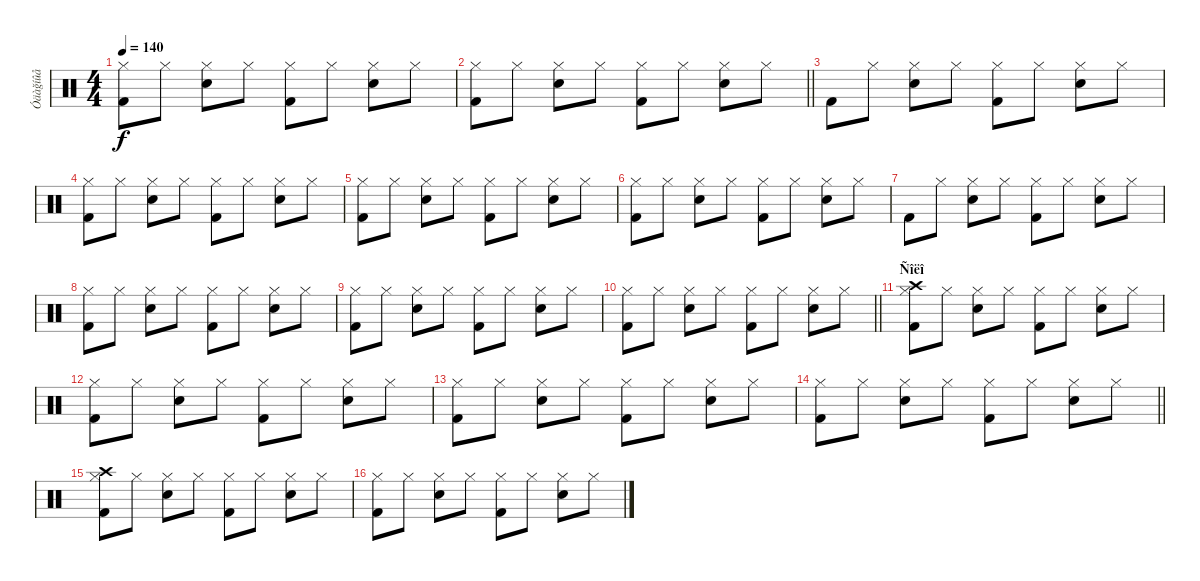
\track ("Óäàğíûå" "Óäàğíûå") {instrument percussion}
\staff {score}
\articulation defaults
\ts (4 4)
\tempo 140
\clef neutral
\ks c
("Hi-Hat (closed)" "Kick (hit) 2").8{dy f} "Hi-Hat (closed)".8 ("Hi-Hat (closed)" "Snare (hit) 2").8 "Hi-Hat (closed)".8 ("Hi-Hat (closed)" "Kick (hit) 2").8 "Hi-Hat (closed)".8 ("Hi-Hat (closed)" "Snare (hit) 2").8 "Hi-Hat (closed)".8 |
\barLineRight lightlight
("Hi-Hat (closed)" "Kick (hit) 2").8 "Hi-Hat (closed)".8 ("Hi-Hat (closed)" "Snare (hit) 2").8 "Hi-Hat (closed)".8 ("Hi-Hat (closed)" "Kick (hit) 2").8 "Hi-Hat (closed)".8 ("Hi-Hat (closed)" "Snare (hit) 2").8 "Hi-Hat (closed)".8 |
"Kick (hit) 2".8 "Hi-Hat (closed)".8 ("Hi-Hat (closed)" "Snare (hit) 2").8 "Hi-Hat (closed)".8 ("Hi-Hat (closed)" "Kick (hit) 2").8 "Hi-Hat (closed)".8 ("Hi-Hat (closed)" "Snare (hit) 2").8 "Hi-Hat (closed)".8 |
("Hi-Hat (closed)" "Kick (hit) 2").8 "Hi-Hat (closed)".8 ("Hi-Hat (closed)" "Snare (hit) 2").8 "Hi-Hat (closed)".8 ("Hi-Hat (closed)" "Kick (hit) 2").8 "Hi-Hat (closed)".8 ("Hi-Hat (closed)" "Snare (hit) 2").8 "Hi-Hat (closed)".8 |
("Hi-Hat (closed)" "Kick (hit) 2").8 "Hi-Hat (closed)".8 ("Hi-Hat (closed)" "Snare (hit) 2").8 "Hi-Hat (closed)".8 ("Hi-Hat (closed)" "Kick (hit) 2").8 "Hi-Hat (closed)".8 ("Hi-Hat (closed)" "Snare (hit) 2").8 "Hi-Hat (closed)".8 |
("Hi-Hat (closed)" "Kick (hit) 2").8 "Hi-Hat (closed)".8 ("Hi-Hat (closed)" "Snare (hit) 2").8 "Hi-Hat (closed)".8 ("Hi-Hat (closed)" "Kick (hit) 2").8 "Hi-Hat (closed)".8 ("Hi-Hat (closed)" "Snare (hit) 2").8 "Hi-Hat (closed)".8 |
"Kick (hit) 2".8 "Hi-Hat (closed)".8 ("Hi-Hat (closed)" "Snare (hit) 2").8 "Hi-Hat (closed)".8 ("Hi-Hat (closed)" "Kick (hit) 2").8 "Hi-Hat (closed)".8 ("Hi-Hat (closed)" "Snare (hit) 2").8 "Hi-Hat (closed)".8 |
("Hi-Hat (closed)" "Kick (hit) 2").8 "Hi-Hat (closed)".8 ("Hi-Hat (closed)" "Snare (hit) 2").8 "Hi-Hat (closed)".8 ("Hi-Hat (closed)" "Kick (hit) 2").8 "Hi-Hat (closed)".8 ("Hi-Hat (closed)" "Snare (hit) 2").8 "Hi-Hat (closed)".8 |
("Hi-Hat (closed)" "Kick (hit) 2").8 "Hi-Hat (closed)".8 ("Hi-Hat (closed)" "Snare (hit) 2").8 "Hi-Hat (closed)".8 ("Hi-Hat (closed)" "Kick (hit) 2").8 "Hi-Hat (closed)".8 ("Hi-Hat (closed)" "Snare (hit) 2").8 "Hi-Hat (closed)".8 |
\barLineRight lightlight
("Hi-Hat (closed)" "Kick (hit) 2").8 "Hi-Hat (closed)".8 ("Hi-Hat (closed)" "Snare (hit) 2").8 "Hi-Hat (closed)".8 ("Hi-Hat (closed)" "Kick (hit) 2").8 "Hi-Hat (closed)".8 ("Hi-Hat (closed)" "Snare (hit) 2").8 "Hi-Hat (closed)".8 |
\section ("" "Ñîëî")
("Hi-Hat (closed)" "Kick (hit) 2" "Crash high (hit)").8 "Hi-Hat (closed)".8 ("Hi-Hat (closed)" "Snare (hit) 2").8 "Hi-Hat (closed)".8 ("Hi-Hat (closed)" "Kick (hit) 2").8 "Hi-Hat (closed)".8 ("Hi-Hat (closed)" "Snare (hit) 2").8 "Hi-Hat (closed)".8 |
("Hi-Hat (closed)" "Kick (hit) 2").8 "Hi-Hat (closed)".8 ("Hi-Hat (closed)" "Snare (hit) 2").8 "Hi-Hat (closed)".8 ("Hi-Hat (closed)" "Kick (hit) 2").8 "Hi-Hat (closed)".8 ("Hi-Hat (closed)" "Snare (hit) 2").8 "Hi-Hat (closed)".8 |
("Hi-Hat (closed)" "Kick (hit) 2").8 "Hi-Hat (closed)".8 ("Hi-Hat (closed)" "Snare (hit) 2").8 "Hi-Hat (closed)".8 ("Hi-Hat (closed)" "Kick (hit) 2").8 "Hi-Hat (closed)".8 ("Hi-Hat (closed)" "Snare (hit) 2").8 "Hi-Hat (closed)".8 |
\barLineRight lightlight
("Hi-Hat (closed)" "Kick (hit) 2").8 "Hi-Hat (closed)".8 ("Hi-Hat (closed)" "Snare (hit) 2").8 "Hi-Hat (closed)".8 ("Hi-Hat (closed)" "Kick (hit) 2").8 "Hi-Hat (closed)".8 ("Hi-Hat (closed)" "Snare (hit) 2").8 "Hi-Hat (closed)".8 |
("Hi-Hat (closed)" "Kick (hit) 2" "Crash high (hit)").8 "Hi-Hat (closed)".8 ("Hi-Hat (closed)" "Snare (hit) 2").8 "Hi-Hat (closed)".8 ("Hi-Hat (closed)" "Kick (hit) 2").8 "Hi-Hat (closed)".8 ("Hi-Hat (closed)" "Snare (hit) 2").8 "Hi-Hat (closed)".8 |
("Hi-Hat (closed)" "Kick (hit) 2").8 "Hi-Hat (closed)".8 ("Hi-Hat (closed)" "Snare (hit) 2").8 "Hi-Hat (closed)".8 ("Hi-Hat (closed)" "Kick (hit) 2").8 "Hi-Hat (closed)".8 ("Hi-Hat (closed)" "Snare (hit) 2").8 "Hi-Hat (closed)".8
